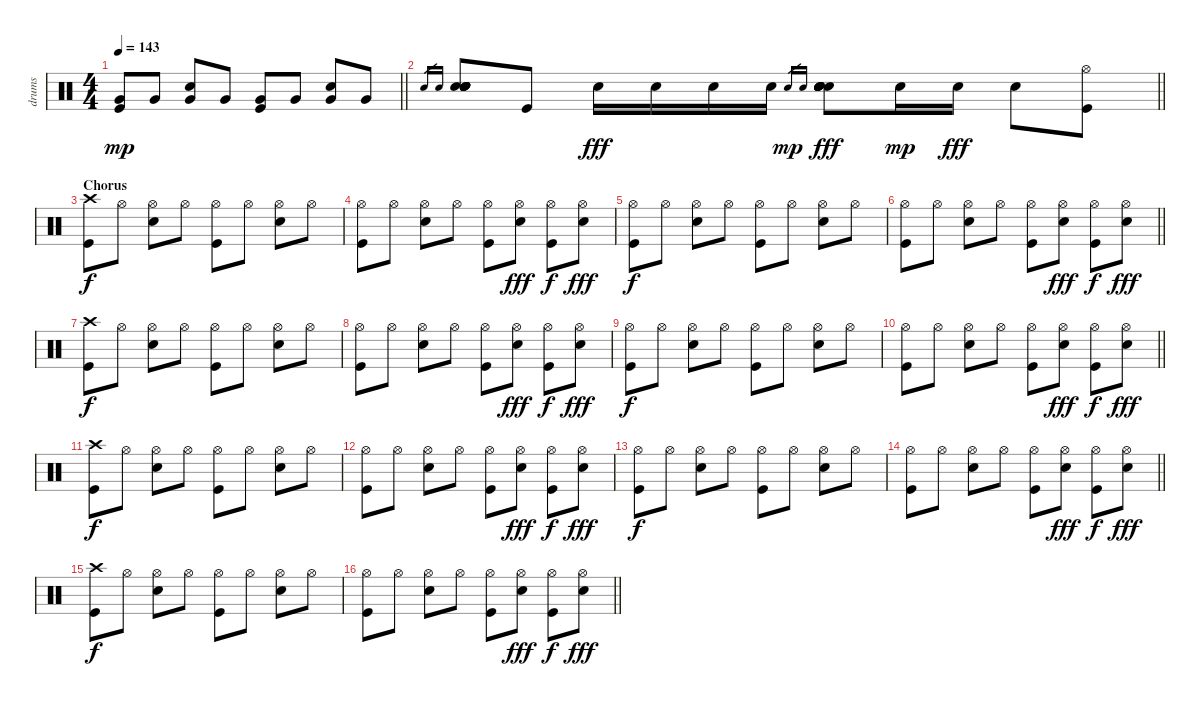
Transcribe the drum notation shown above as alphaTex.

\track ("drums" "drums") {instrument percussion}
\staff {score}
\articulation defaults
\ts (4 4)
\tempo 143
\clef neutral
\barLineRight lightlight
\ks c
("Very Low Tom (hit)" "Kick (hit)").8{dy mp} "Very Low Tom (hit)".8 ("Snare (hit) 2" "Very Low Tom (hit)").8 "Very Low Tom (hit)".8 ("Very Low Tom (hit)" "Kick (hit)").8 "Very Low Tom (hit)".8 ("Snare (hit) 2" "Very Low Tom (hit)").8 "Very Low Tom (hit)".8 |
\barLineRight lightlight "Snare (hit) 2".16{gr} "Snare (hit) 2".16{gr}
("Snare (hit) 2" "Snare (hit) 2" "Snare (hit) 2" "Snare (hit) 2" "Snare (hit) 2" "Snare (hit) 2").8 "Kick (hit)".8 "Snare (hit) 2".16{dy fff} "Snare (hit) 2".16 "Snare (hit) 2".16 "Snare (hit) 2".16 "Snare (hit) 2".16{gr dy mp} "Snare (hit) 2".16{gr} ("Snare (hit) 2" "Snare (hit) 2" "Snare (hit) 2" "Snare (hit) 2" "Snare (hit) 2" "Snare (hit) 2").8{dy fff} "Snare (hit) 2".16{dy mp} "Snare (hit) 2".16{dy fff} "Snare (hit) 2".8 ("Hi-Hat (open)" "Kick (hit)").8 |
\section ("" "Chorus")
("Crash high (hit)" "Kick (hit)").8{dy f} "Hi-Hat (open)".8 ("Hi-Hat (open)" "Snare (hit) 2").8 "Hi-Hat (open)".8 ("Hi-Hat (open)" "Kick (hit)").8 "Hi-Hat (open)".8 ("Hi-Hat (open)" "Snare (hit) 2").8 "Hi-Hat (open)".8 |
("Hi-Hat (open)" "Kick (hit)").8 "Hi-Hat (open)".8 ("Hi-Hat (open)" "Snare (hit) 2").8 "Hi-Hat (open)".8 ("Hi-Hat (open)" "Kick (hit)").8 ("Hi-Hat (open)" "Snare (hit) 2").8{dy fff} ("Hi-Hat (open)" "Kick (hit)").8{dy f} ("Hi-Hat (open)" "Snare (hit) 2").8{dy fff} |
("Hi-Hat (open)" "Kick (hit)").8{dy f} "Hi-Hat (open)".8 ("Hi-Hat (open)" "Snare (hit) 2").8 "Hi-Hat (open)".8 ("Hi-Hat (open)" "Kick (hit)").8 "Hi-Hat (open)".8 ("Hi-Hat (open)" "Snare (hit) 2").8 "Hi-Hat (open)".8 |
\barLineRight lightlight
("Hi-Hat (open)" "Kick (hit)").8 "Hi-Hat (open)".8 ("Hi-Hat (open)" "Snare (hit) 2").8 "Hi-Hat (open)".8 ("Hi-Hat (open)" "Kick (hit)").8 ("Hi-Hat (open)" "Snare (hit) 2").8{dy fff} ("Hi-Hat (open)" "Kick (hit)").8{dy f} ("Hi-Hat (open)" "Snare (hit) 2").8{dy fff} |
("Crash high (hit)" "Kick (hit)").8{dy f} "Hi-Hat (open)".8 ("Hi-Hat (open)" "Snare (hit) 2").8 "Hi-Hat (open)".8 ("Hi-Hat (open)" "Kick (hit)").8 "Hi-Hat (open)".8 ("Hi-Hat (open)" "Snare (hit) 2").8 "Hi-Hat (open)".8 |
("Hi-Hat (open)" "Kick (hit)").8 "Hi-Hat (open)".8 ("Hi-Hat (open)" "Snare (hit) 2").8 "Hi-Hat (open)".8 ("Hi-Hat (open)" "Kick (hit)").8 ("Hi-Hat (open)" "Snare (hit) 2").8{dy fff} ("Hi-Hat (open)" "Kick (hit)").8{dy f} ("Hi-Hat (open)" "Snare (hit) 2").8{dy fff} |
("Hi-Hat (open)" "Kick (hit)").8{dy f} "Hi-Hat (open)".8 ("Hi-Hat (open)" "Snare (hit) 2").8 "Hi-Hat (open)".8 ("Hi-Hat (open)" "Kick (hit)").8 "Hi-Hat (open)".8 ("Hi-Hat (open)" "Snare (hit) 2").8 "Hi-Hat (open)".8 |
\barLineRight lightlight
("Hi-Hat (open)" "Kick (hit)").8 "Hi-Hat (open)".8 ("Hi-Hat (open)" "Snare (hit) 2").8 "Hi-Hat (open)".8 ("Hi-Hat (open)" "Kick (hit)").8 ("Hi-Hat (open)" "Snare (hit) 2").8{dy fff} ("Hi-Hat (open)" "Kick (hit)").8{dy f} ("Hi-Hat (open)" "Snare (hit) 2").8{dy fff} |
("Crash high (hit)" "Kick (hit)").8{dy f} "Hi-Hat (open)".8 ("Hi-Hat (open)" "Snare (hit) 2").8 "Hi-Hat (open)".8 ("Hi-Hat (open)" "Kick (hit)").8 "Hi-Hat (open)".8 ("Hi-Hat (open)" "Snare (hit) 2").8 "Hi-Hat (open)".8 |
("Hi-Hat (open)" "Kick (hit)").8 "Hi-Hat (open)".8 ("Hi-Hat (open)" "Snare (hit) 2").8 "Hi-Hat (open)".8 ("Hi-Hat (open)" "Kick (hit)").8 ("Hi-Hat (open)" "Snare (hit) 2").8{dy fff} ("Hi-Hat (open)" "Kick (hit)").8{dy f} ("Hi-Hat (open)" "Snare (hit) 2").8{dy fff} |
("Hi-Hat (open)" "Kick (hit)").8{dy f} "Hi-Hat (open)".8 ("Hi-Hat (open)" "Snare (hit) 2").8 "Hi-Hat (open)".8 ("Hi-Hat (open)" "Kick (hit)").8 "Hi-Hat (open)".8 ("Hi-Hat (open)" "Snare (hit) 2").8 "Hi-Hat (open)".8 |
\barLineRight lightlight
("Hi-Hat (open)" "Kick (hit)").8 "Hi-Hat (open)".8 ("Hi-Hat (open)" "Snare (hit) 2").8 "Hi-Hat (open)".8 ("Hi-Hat (open)" "Kick (hit)").8 ("Hi-Hat (open)" "Snare (hit) 2").8{dy fff} ("Hi-Hat (open)" "Kick (hit)").8{dy f} ("Hi-Hat (open)" "Snare (hit) 2").8{dy fff} |
("Crash high (hit)" "Kick (hit)").8{dy f} "Hi-Hat (open)".8 ("Hi-Hat (open)" "Snare (hit) 2").8 "Hi-Hat (open)".8 ("Hi-Hat (open)" "Kick (hit)").8 "Hi-Hat (open)".8 ("Hi-Hat (open)" "Snare (hit) 2").8 "Hi-Hat (open)".8 |
\barLineRight lightlight
("Hi-Hat (open)" "Kick (hit)").8 "Hi-Hat (open)".8 ("Hi-Hat (open)" "Snare (hit) 2").8 "Hi-Hat (open)".8 ("Hi-Hat (open)" "Kick (hit)").8 ("Hi-Hat (open)" "Snare (hit) 2").8{dy fff} ("Hi-Hat (open)" "Kick (hit)").8{dy f} ("Hi-Hat (open)" "Snare (hit) 2").8{dy fff}
